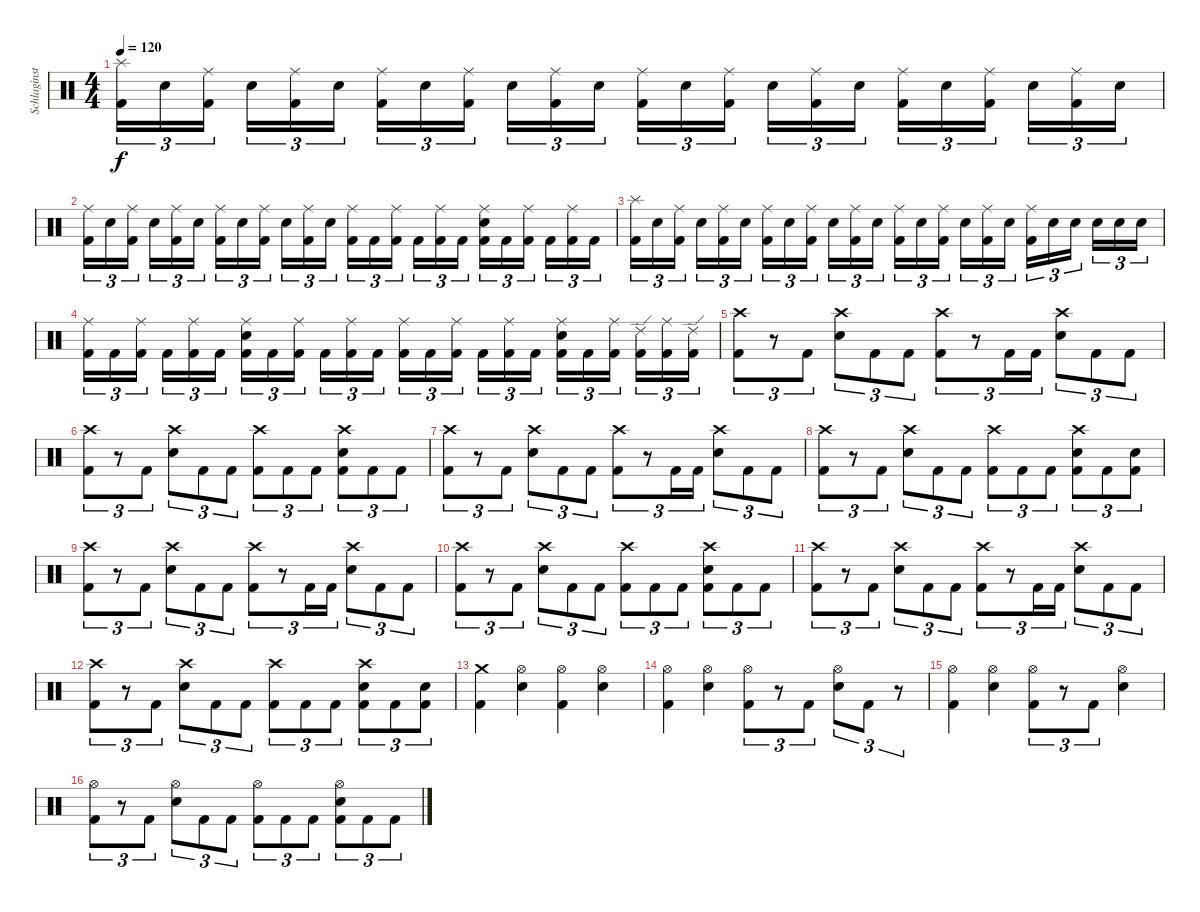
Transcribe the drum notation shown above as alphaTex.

\track ("Schlaginstrumente - Auswahl" "Schlaginst") {instrument percussion}
\staff {score}
\articulation defaults
\ts (4 4)
\tempo 120
\clef neutral
\ks c
("Splash (hit)" "Kick (hit) 2").16{tu (3 2) dy f} "Electric Snare (hit)".16{tu (3 2)} ("Ride (middle)" "Kick (hit) 2").16{tu (3 2) beam splitsecondary} "Electric Snare (hit)".16{tu (3 2)} ("Ride (middle)" "Kick (hit) 2").16{tu (3 2)} "Electric Snare (hit)".16{tu (3 2)} ("Ride (middle)" "Kick (hit) 2").16{tu (3 2)} "Electric Snare (hit)".16{tu (3 2)} ("Ride (middle)" "Kick (hit) 2").16{tu (3 2) beam splitsecondary} "Electric Snare (hit)".16{tu (3 2)} ("Ride (middle)" "Kick (hit) 2").16{tu (3 2)} "Electric Snare (hit)".16{tu (3 2)} ("Ride (middle)" "Kick (hit) 2").16{tu (3 2)} "Electric Snare (hit)".16{tu (3 2)} ("Ride (middle)" "Kick (hit) 2").16{tu (3 2) beam splitsecondary} "Electric Snare (hit)".16{tu (3 2)} ("Ride (middle)" "Kick (hit) 2").16{tu (3 2)} "Electric Snare (hit)".16{tu (3 2)} ("Ride (middle)" "Kick (hit) 2").16{tu (3 2)} "Electric Snare (hit)".16{tu (3 2)} ("Ride (middle)" "Kick (hit) 2").16{tu (3 2) beam splitsecondary} "Electric Snare (hit)".16{tu (3 2)} ("Ride (middle)" "Kick (hit) 2").16{tu (3 2)} "Electric Snare (hit)".16{tu (3 2)} |
("Ride (middle)" "Kick (hit) 2").16{tu (3 2)} "Electric Snare (hit)".16{tu (3 2)} ("Ride (middle)" "Kick (hit) 2").16{tu (3 2) beam splitsecondary} "Electric Snare (hit)".16{tu (3 2)} ("Ride (middle)" "Kick (hit) 2").16{tu (3 2)} "Electric Snare (hit)".16{tu (3 2)} ("Ride (middle)" "Kick (hit) 2").16{tu (3 2)} "Electric Snare (hit)".16{tu (3 2)} ("Ride (middle)" "Kick (hit) 2").16{tu (3 2) beam splitsecondary} "Electric Snare (hit)".16{tu (3 2)} ("Ride (middle)" "Kick (hit) 2").16{tu (3 2)} "Electric Snare (hit)".16{tu (3 2)} ("Ride (middle)" "Kick (hit) 2").16{tu (3 2)} "Kick (hit) 2".16{tu (3 2)} ("Ride (middle)" "Kick (hit) 2").16{tu (3 2) beam splitsecondary} "Kick (hit) 2".16{tu (3 2)} ("Ride (middle)" "Kick (hit) 2").16{tu (3 2)} "Kick (hit) 2".16{tu (3 2)} ("Ride (middle)" "Electric Snare (hit)" "Kick (hit) 2").16{tu (3 2)} "Kick (hit) 2".16{tu (3 2)} ("Ride (middle)" "Kick (hit) 2").16{tu (3 2) beam splitsecondary} "Kick (hit) 2".16{tu (3 2)} ("Ride (middle)" "Kick (hit) 2").16{tu (3 2)} "Kick (hit) 2".16{tu (3 2)} |
("Splash (hit)" "Kick (hit) 2").16{tu (3 2)} "Electric Snare (hit)".16{tu (3 2)} ("Ride (middle)" "Kick (hit) 2").16{tu (3 2) beam splitsecondary} "Electric Snare (hit)".16{tu (3 2)} ("Ride (middle)" "Kick (hit) 2").16{tu (3 2)} "Electric Snare (hit)".16{tu (3 2)} ("Ride (middle)" "Kick (hit) 2").16{tu (3 2)} "Electric Snare (hit)".16{tu (3 2)} ("Ride (middle)" "Kick (hit) 2").16{tu (3 2) beam splitsecondary} "Electric Snare (hit)".16{tu (3 2)} ("Ride (middle)" "Kick (hit) 2").16{tu (3 2)} "Electric Snare (hit)".16{tu (3 2)} ("Ride (middle)" "Kick (hit) 2").16{tu (3 2)} "Electric Snare (hit)".16{tu (3 2)} ("Ride (middle)" "Kick (hit) 2").16{tu (3 2) beam splitsecondary} "Electric Snare (hit)".16{tu (3 2)} ("Ride (middle)" "Kick (hit) 2").16{tu (3 2)} "Electric Snare (hit)".16{tu (3 2)} ("Ride (middle)" "Kick (hit) 2").16{tu (3 2)} "Electric Snare (hit)".16{tu (3 2)} "Electric Snare (hit)".16{tu (3 2) beam splitsecondary} "Electric Snare (hit)".16{tu (3 2)} "Electric Snare (hit)".16{tu (3 2)} "Electric Snare (hit)".16{tu (3 2)} |
("Ride (middle)" "Kick (hit) 2").16{tu (3 2)} "Kick (hit) 2".16{tu (3 2)} ("Ride (middle)" "Kick (hit) 2").16{tu (3 2) beam splitsecondary} "Kick (hit) 2".16{tu (3 2)} ("Ride (middle)" "Kick (hit) 2").16{tu (3 2)} "Kick (hit) 2".16{tu (3 2)} ("Ride (middle)" "Electric Snare (hit)" "Kick (hit) 2").16{tu (3 2)} "Kick (hit) 2".16{tu (3 2)} ("Ride (middle)" "Kick (hit) 2").16{tu (3 2) beam splitsecondary} "Kick (hit) 2".16{tu (3 2)} ("Ride (middle)" "Kick (hit) 2").16{tu (3 2)} "Kick (hit) 2".16{tu (3 2)} ("Ride (middle)" "Kick (hit) 2").16{tu (3 2)} "Kick (hit) 2".16{tu (3 2)} ("Ride (middle)" "Kick (hit) 2").16{tu (3 2) beam splitsecondary} "Kick (hit) 2".16{tu (3 2)} ("Ride (middle)" "Kick (hit) 2").16{tu (3 2)} "Kick (hit) 2".16{tu (3 2)} ("Ride (middle)" "Electric Snare (hit)" "Kick (hit) 2").16{tu (3 2)} "Kick (hit) 2".16{tu (3 2)} ("Ride (middle)" "Kick (hit) 2").16{tu (3 2) beam splitsecondary} ("Ride (edge) 2" "Kick (hit) 2").16{tu (3 2)} ("Ride (middle)" "Kick (hit) 2").16{tu (3 2)} ("Ride (edge) 2" "Kick (hit) 2").16{tu (3 2)} |
("Crash high (hit)" "Kick (hit) 2").8{tu (3 2)} r.8{tu (3 2)} "Kick (hit) 2".8{tu (3 2)} ("Crash high (hit)" "Electric Snare (hit)").8{tu (3 2)} "Kick (hit) 2".8{tu (3 2)} "Kick (hit) 2".8{tu (3 2)} ("Crash high (hit)" "Kick (hit) 2").8{tu (3 2)} r.8{tu (3 2)} "Kick (hit) 2".16{tu (3 2)} "Kick (hit) 2".16{tu (3 2)} ("Crash high (hit)" "Electric Snare (hit)").8{tu (3 2)} "Kick (hit) 2".8{tu (3 2)} "Kick (hit) 2".8{tu (3 2)} |
("Crash high (hit)" "Kick (hit) 2").8{tu (3 2)} r.8{tu (3 2)} "Kick (hit) 2".8{tu (3 2)} ("Crash high (hit)" "Electric Snare (hit)").8{tu (3 2)} "Kick (hit) 2".8{tu (3 2)} "Kick (hit) 2".8{tu (3 2)} ("Crash high (hit)" "Kick (hit) 2").8{tu (3 2)} "Kick (hit) 2".8{tu (3 2)} "Kick (hit) 2".8{tu (3 2)} ("Crash high (hit)" "Electric Snare (hit)" "Kick (hit) 2").8{tu (3 2)} "Kick (hit) 2".8{tu (3 2)} "Kick (hit) 2".8{tu (3 2)} |
("Crash high (hit)" "Kick (hit) 2").8{tu (3 2)} r.8{tu (3 2)} "Kick (hit) 2".8{tu (3 2)} ("Crash high (hit)" "Electric Snare (hit)").8{tu (3 2)} "Kick (hit) 2".8{tu (3 2)} "Kick (hit) 2".8{tu (3 2)} ("Crash high (hit)" "Kick (hit) 2").8{tu (3 2)} r.8{tu (3 2)} "Kick (hit) 2".16{tu (3 2)} "Kick (hit) 2".16{tu (3 2)} ("Crash high (hit)" "Electric Snare (hit)").8{tu (3 2)} "Kick (hit) 2".8{tu (3 2)} "Kick (hit) 2".8{tu (3 2)} |
("Crash high (hit)" "Kick (hit) 2").8{tu (3 2)} r.8{tu (3 2)} "Kick (hit) 2".8{tu (3 2)} ("Crash high (hit)" "Electric Snare (hit)").8{tu (3 2)} "Kick (hit) 2".8{tu (3 2)} "Kick (hit) 2".8{tu (3 2)} ("Crash high (hit)" "Kick (hit) 2").8{tu (3 2)} "Kick (hit) 2".8{tu (3 2)} "Kick (hit) 2".8{tu (3 2)} ("Crash high (hit)" "Electric Snare (hit)" "Kick (hit) 2").8{tu (3 2)} "Kick (hit) 2".8{tu (3 2)} ("Electric Snare (hit)" "Kick (hit) 2").8{tu (3 2)} |
("Crash high (hit)" "Kick (hit) 2").8{tu (3 2)} r.8{tu (3 2)} "Kick (hit) 2".8{tu (3 2)} ("Crash high (hit)" "Electric Snare (hit)").8{tu (3 2)} "Kick (hit) 2".8{tu (3 2)} "Kick (hit) 2".8{tu (3 2)} ("Crash high (hit)" "Kick (hit) 2").8{tu (3 2)} r.8{tu (3 2)} "Kick (hit) 2".16{tu (3 2)} "Kick (hit) 2".16{tu (3 2)} ("Crash high (hit)" "Electric Snare (hit)").8{tu (3 2)} "Kick (hit) 2".8{tu (3 2)} "Kick (hit) 2".8{tu (3 2)} |
("Crash high (hit)" "Kick (hit) 2").8{tu (3 2)} r.8{tu (3 2)} "Kick (hit) 2".8{tu (3 2)} ("Crash high (hit)" "Electric Snare (hit)").8{tu (3 2)} "Kick (hit) 2".8{tu (3 2)} "Kick (hit) 2".8{tu (3 2)} ("Crash high (hit)" "Kick (hit) 2").8{tu (3 2)} "Kick (hit) 2".8{tu (3 2)} "Kick (hit) 2".8{tu (3 2)} ("Crash high (hit)" "Electric Snare (hit)" "Kick (hit) 2").8{tu (3 2)} "Kick (hit) 2".8{tu (3 2)} "Kick (hit) 2".8{tu (3 2)} |
("Crash high (hit)" "Kick (hit) 2").8{tu (3 2)} r.8{tu (3 2)} "Kick (hit) 2".8{tu (3 2)} ("Crash high (hit)" "Electric Snare (hit)").8{tu (3 2)} "Kick (hit) 2".8{tu (3 2)} "Kick (hit) 2".8{tu (3 2)} ("Crash high (hit)" "Kick (hit) 2").8{tu (3 2)} r.8{tu (3 2)} "Kick (hit) 2".16{tu (3 2)} "Kick (hit) 2".16{tu (3 2)} ("Crash high (hit)" "Electric Snare (hit)").8{tu (3 2)} "Kick (hit) 2".8{tu (3 2)} "Kick (hit) 2".8{tu (3 2)} |
("Crash high (hit)" "Kick (hit) 2").8{tu (3 2)} r.8{tu (3 2)} "Kick (hit) 2".8{tu (3 2)} ("Crash high (hit)" "Electric Snare (hit)").8{tu (3 2)} "Kick (hit) 2".8{tu (3 2)} "Kick (hit) 2".8{tu (3 2)} ("Crash high (hit)" "Kick (hit) 2").8{tu (3 2)} "Kick (hit) 2".8{tu (3 2)} "Kick (hit) 2".8{tu (3 2)} ("Crash high (hit)" "Electric Snare (hit)" "Kick (hit) 2").8{tu (3 2)} "Kick (hit) 2".8{tu (3 2)} ("Electric Snare (hit)" "Kick (hit) 2").8{tu (3 2)} |
("Crash medium (hit)" "Kick (hit) 2").4 ("Hi-Hat (open)" "Electric Snare (hit)").4 ("Hi-Hat (open)" "Kick (hit) 2").4 ("Hi-Hat (open)" "Electric Snare (hit)").4 |
("Hi-Hat (open)" "Kick (hit) 2").4 ("Hi-Hat (open)" "Electric Snare (hit)").4 ("Hi-Hat (open)" "Kick (hit) 2").8{tu (3 2)} r.8{tu (3 2)} "Kick (hit) 2".8{tu (3 2)} ("Hi-Hat (open)" "Electric Snare (hit)").8{tu (3 2)} "Kick (hit) 2".8{tu (3 2)} r.8{tu (3 2)} |
("Hi-Hat (open)" "Kick (hit) 2").4 ("Hi-Hat (open)" "Electric Snare (hit)").4 ("Hi-Hat (open)" "Kick (hit) 2").8{tu (3 2)} r.8{tu (3 2)} "Kick (hit) 2".8{tu (3 2)} ("Hi-Hat (open)" "Electric Snare (hit)").4 |
("Hi-Hat (open)" "Kick (hit) 2").8{tu (3 2)} r.8{tu (3 2)} "Kick (hit) 2".8{tu (3 2)} ("Hi-Hat (open)" "Electric Snare (hit)").8{tu (3 2)} "Kick (hit) 2".8{tu (3 2)} "Kick (hit) 2".8{tu (3 2)} ("Hi-Hat (open)" "Kick (hit) 2").8{tu (3 2)} "Kick (hit) 2".8{tu (3 2)} "Kick (hit) 2".8{tu (3 2)} ("Hi-Hat (open)" "Electric Snare (hit)" "Kick (hit) 2").8{tu (3 2)} "Kick (hit) 2".8{tu (3 2)} "Kick (hit) 2".8{tu (3 2)}
